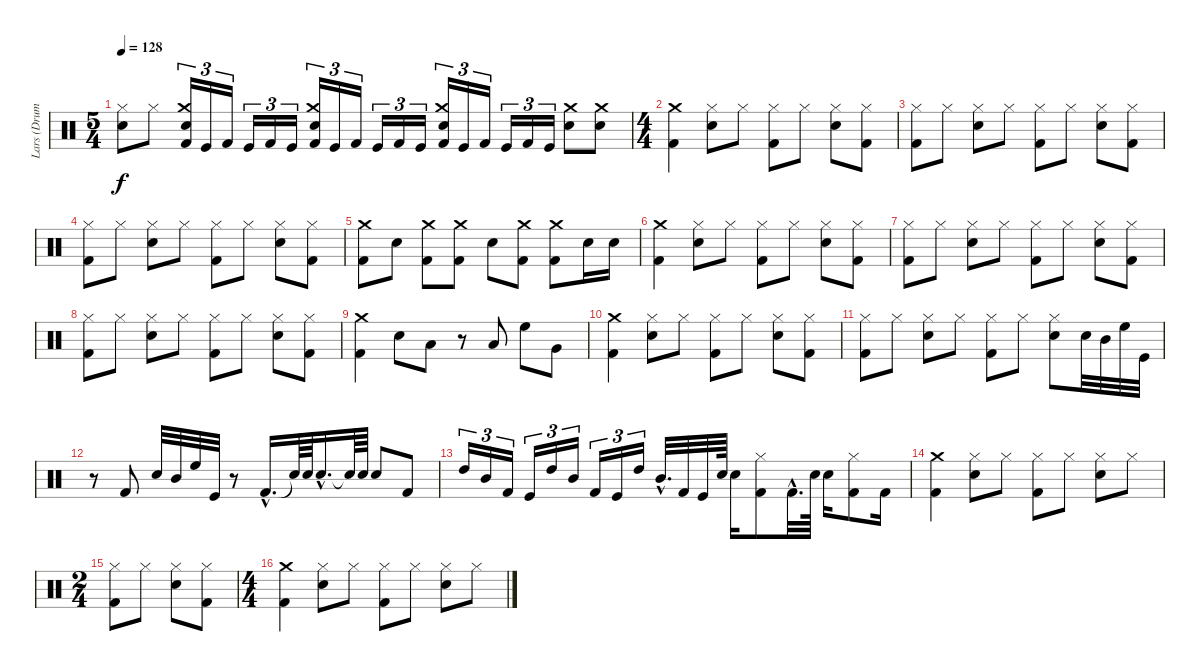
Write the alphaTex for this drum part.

\track ("Lars (Drums)" "Lars (Drum") {instrument percussion}
\staff {score}
\articulation defaults
\ts (5 4)
\tempo 128
\clef neutral
\ks c
("Snare (hit) 2" "Hi-Hat (closed)").8{dy f} "Hi-Hat (closed)".8 ("Snare (hit) 2" "Crash medium (hit)" "Kick (hit) 2").16{tu (3 2)} "Kick (hit)".16{tu (3 2)} "Kick (hit) 2".16{tu (3 2)} "Kick (hit)".16{tu (3 2)} "Kick (hit) 2".16{tu (3 2)} "Kick (hit)".16{tu (3 2)} ("Crash medium (hit)" "Snare (hit) 2" "Kick (hit) 2").16{tu (3 2)} "Kick (hit)".16{tu (3 2)} "Kick (hit) 2".16{tu (3 2)} "Kick (hit)".16{tu (3 2)} "Kick (hit) 2".16{tu (3 2)} "Kick (hit)".16{tu (3 2)} ("Crash medium (hit)" "Snare (hit) 2" "Kick (hit) 2").16{tu (3 2)} "Kick (hit)".16{tu (3 2)} "Kick (hit) 2".16{tu (3 2)} "Kick (hit)".16{tu (3 2)} "Kick (hit) 2".16{tu (3 2)} "Kick (hit)".16{tu (3 2)} ("Crash medium (hit)" "Snare (hit) 2").8 ("Crash medium (hit)" "Snare (hit) 2").8 |
\ts (4 4)
("Kick (hit) 2" "Crash medium (hit)").4 ("Snare (hit) 2" "Hi-Hat (closed)").8 "Hi-Hat (closed)".8 ("Hi-Hat (closed)" "Kick (hit) 2").8 "Hi-Hat (closed)".8 ("Snare (hit) 2" "Hi-Hat (closed)").8 ("Kick (hit) 2" "Hi-Hat (closed)").8 |
("Hi-Hat (closed)" "Kick (hit) 2").8 "Hi-Hat (closed)".8 ("Snare (hit) 2" "Hi-Hat (closed)").8 "Hi-Hat (closed)".8 ("Hi-Hat (closed)" "Kick (hit) 2").8 "Hi-Hat (closed)".8 ("Snare (hit) 2" "Hi-Hat (closed)").8 ("Kick (hit) 2" "Hi-Hat (closed)").8 |
("Hi-Hat (closed)" "Kick (hit) 2").8 "Hi-Hat (closed)".8 ("Snare (hit) 2" "Hi-Hat (closed)").8 "Hi-Hat (closed)".8 ("Hi-Hat (closed)" "Kick (hit) 2").8 "Hi-Hat (closed)".8 ("Snare (hit) 2" "Hi-Hat (closed)").8 ("Kick (hit) 2" "Hi-Hat (closed)").8 |
("Crash medium (hit)" "Kick (hit) 2").8 "Snare (hit) 2".8 ("Kick (hit) 2" "Crash medium (hit)").8 ("Kick (hit) 2" "Crash medium (hit)").8 "Snare (hit) 2".8 ("Crash medium (hit)" "Kick (hit) 2").8 ("Crash medium (hit)" "Kick (hit) 2").8 "Snare (hit) 2".16 "Snare (hit) 2".16 |
("Kick (hit) 2" "Crash medium (hit)").4 ("Snare (hit) 2" "Hi-Hat (closed)").8 "Hi-Hat (closed)".8 ("Hi-Hat (closed)" "Kick (hit) 2").8 "Hi-Hat (closed)".8 ("Snare (hit) 2" "Hi-Hat (closed)").8 ("Kick (hit) 2" "Hi-Hat (closed)").8 |
("Hi-Hat (closed)" "Kick (hit) 2").8 "Hi-Hat (closed)".8 ("Snare (hit) 2" "Hi-Hat (closed)").8 "Hi-Hat (closed)".8 ("Hi-Hat (closed)" "Kick (hit) 2").8 "Hi-Hat (closed)".8 ("Snare (hit) 2" "Hi-Hat (closed)").8 ("Kick (hit) 2" "Hi-Hat (closed)").8 |
("Hi-Hat (closed)" "Kick (hit) 2").8 "Hi-Hat (closed)".8 ("Snare (hit) 2" "Hi-Hat (closed)").8 "Hi-Hat (closed)".8 ("Hi-Hat (closed)" "Kick (hit) 2").8 "Hi-Hat (closed)".8 ("Snare (hit) 2" "Hi-Hat (closed)").8 ("Kick (hit) 2" "Hi-Hat (closed)").8 |
("Kick (hit) 2" "Crash medium (hit)").4 "Snare (hit) 2".8 "Low Tom (hit)".8 r.8 "Low Tom (hit)".8 "High Floor Tom (hit)".8 "Very Low Tom (hit)".8 |
("Kick (hit) 2" "Crash medium (hit)").4 ("Snare (hit) 2" "Hi-Hat (closed)").8 "Hi-Hat (closed)".8 ("Hi-Hat (closed)" "Kick (hit) 2").8 "Hi-Hat (closed)".8 ("Snare (hit) 2" "Hi-Hat (closed)").8 ("Kick (hit) 2" "Hi-Hat (closed)").8 |
("Hi-Hat (closed)" "Kick (hit) 2").8 "Hi-Hat (closed)".8 ("Snare (hit) 2" "Hi-Hat (closed)").8 "Hi-Hat (closed)".8 ("Hi-Hat (closed)" "Kick (hit) 2").8 "Hi-Hat (closed)".8 ("Snare (hit) 2" "Hi-Hat (closed)").8 "Snare (hit) 2".32 "Mid Tom (hit)".32 "High Floor Tom (hit)".32 "Kick (hit)".32 |
r.8 "Kick (hit) 2".8 "Snare (hit) 2".32 "Mid Tom (hit)".32 "High Floor Tom (hit)".32 "Kick (hit)".32 r.8 "Kick (hit) 2"{hac}.16{d} "Snare (hit)"{t}.64 "Snare (hit) 2".64 "Snare (hit) 2"{hac}.16{d} "Snare (hit)"{t}.64 "Snare (hit) 2".64 "Snare (hit) 2".8 "Kick (hit) 2".8 |
"High Tom (hit)".16{tu (3 2)} "Mid Tom (hit)".16{tu (3 2)} "Kick (hit) 2".16{tu (3 2)} "Kick (hit)".16{tu (3 2)} "High Tom (hit)".16{tu (3 2)} "Mid Tom (hit)".16{tu (3 2)} "Kick (hit) 2".16{tu (3 2)} "Kick (hit)".16{tu (3 2)} "High Tom (hit)".16{tu (3 2)} "Mid Tom (hit)"{hac}.32{d} "Kick (hit) 2".32 "Kick (hit)".32 "Snare (hit) 2".64 "Snare (hit) 2".16 ("Hi-Hat (closed)" "Kick (hit) 2").8 "Kick (hit) 2"{hac}.32{d} "Snare (hit) 2".64 "Snare (hit) 2".16 ("Hi-Hat (closed)" "Kick (hit) 2").8 "Kick (hit) 2".16 |
("Kick (hit) 2" "Crash medium (hit)").4 ("Hi-Hat (closed)" "Snare (hit) 2").8 "Hi-Hat (closed)".8 ("Hi-Hat (closed)" "Kick (hit) 2").8 "Hi-Hat (closed)".8 ("Snare (hit) 2" "Hi-Hat (closed)").8 "Hi-Hat (closed)".8 |
\ts (2 4)
("Kick (hit) 2" "Hi-Hat (closed)").8 "Hi-Hat (closed)".8 ("Snare (hit) 2" "Hi-Hat (closed)").8 ("Kick (hit) 2" "Hi-Hat (closed)").8 |
\ts (4 4)
("Kick (hit) 2" "Crash medium (hit)").4 ("Hi-Hat (closed)" "Snare (hit) 2").8 "Hi-Hat (closed)".8 ("Hi-Hat (closed)" "Kick (hit) 2").8 "Hi-Hat (closed)".8 ("Snare (hit) 2" "Hi-Hat (closed)").8 "Hi-Hat (closed)".8
